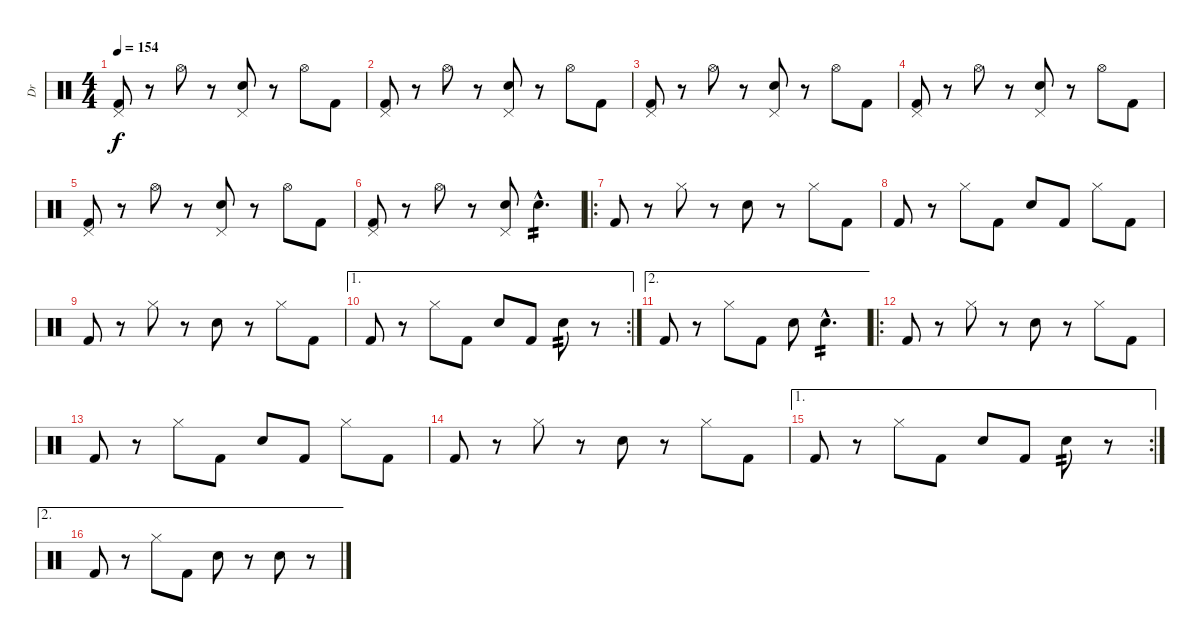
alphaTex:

\track ("Dr" "Dr") {instrument percussion}
\staff {score}
\articulation defaults
\ts (4 4)
\tempo 154
\clef neutral
\ks c
("Pedal Hi-Hat (hit)" "Kick (hit) 2").8{dy f} r.8 "Hi-Hat (open)".8 r.8 ("Pedal Hi-Hat (hit)" "Electric Snare (hit)").8 r.8 "Hi-Hat (open)".8 "Kick (hit) 2".8 |
("Pedal Hi-Hat (hit)" "Kick (hit) 2").8 r.8 "Hi-Hat (open)".8 r.8 ("Pedal Hi-Hat (hit)" "Electric Snare (hit)").8 r.8 "Hi-Hat (open)".8 "Kick (hit) 2".8 |
("Pedal Hi-Hat (hit)" "Kick (hit) 2").8 r.8 "Hi-Hat (open)".8 r.8 ("Pedal Hi-Hat (hit)" "Electric Snare (hit)").8 r.8 "Hi-Hat (open)".8 "Kick (hit) 2".8 |
("Pedal Hi-Hat (hit)" "Kick (hit) 2").8 r.8 "Hi-Hat (open)".8 r.8 ("Pedal Hi-Hat (hit)" "Electric Snare (hit)").8 r.8 "Hi-Hat (open)".8 "Kick (hit) 2".8 |
("Pedal Hi-Hat (hit)" "Kick (hit) 2").8 r.8 "Hi-Hat (open)".8 r.8 ("Pedal Hi-Hat (hit)" "Electric Snare (hit)").8 r.8 "Hi-Hat (open)".8 "Kick (hit) 2".8 |
("Pedal Hi-Hat (hit)" "Kick (hit) 2").8 r.8 "Hi-Hat (open)".8 r.8 ("Pedal Hi-Hat (hit)" "Electric Snare (hit)").8 "Electric Snare (hit)"{hac}.4{d tp 2} |
\ro "Kick (hit) 2".8
r.8 "Hi-Hat (closed)".8 r.8 "Electric Snare (hit)".8 r.8 "Hi-Hat (closed)".8 "Kick (hit) 2".8 |
"Kick (hit) 2".8 r.8 "Hi-Hat (closed)".8 "Kick (hit) 2".8 "Electric Snare (hit)".8 "Kick (hit) 2".8 "Hi-Hat (closed)".8 "Kick (hit) 2".8 |
"Kick (hit) 2".8 r.8 "Hi-Hat (closed)".8 r.8 "Electric Snare (hit)".8 r.8 "Hi-Hat (closed)".8 "Kick (hit) 2".8 |
\ae 1
\rc 2 "Kick (hit) 2".8
r.8 "Hi-Hat (closed)".8 "Kick (hit) 2".8 "Electric Snare (hit)".8 "Kick (hit) 2".8 "Electric Snare (hit)".8{tp 2} r.8 |
\ae 2 "Kick (hit) 2".8
r.8 "Hi-Hat (closed)".8 "Kick (hit) 2".8 "Electric Snare (hit)".8 "Electric Snare (hit)"{hac}.4{d tp 2} |
\ro "Kick (hit) 2".8
r.8 "Hi-Hat (closed)".8 r.8 "Electric Snare (hit)".8 r.8 "Hi-Hat (closed)".8 "Kick (hit) 2".8 |
"Kick (hit) 2".8 r.8 "Hi-Hat (closed)".8 "Kick (hit) 2".8 "Electric Snare (hit)".8 "Kick (hit) 2".8 "Hi-Hat (closed)".8 "Kick (hit) 2".8 |
"Kick (hit) 2".8 r.8 "Hi-Hat (closed)".8 r.8 "Electric Snare (hit)".8 r.8 "Hi-Hat (closed)".8 "Kick (hit) 2".8 |
\ae 1
\rc 2 "Kick (hit) 2".8
r.8 "Hi-Hat (closed)".8 "Kick (hit) 2".8 "Electric Snare (hit)".8 "Kick (hit) 2".8 "Electric Snare (hit)".8{tp 2} r.8 |
\ae 2 "Kick (hit) 2".8
r.8 "Hi-Hat (closed)".8 "Kick (hit) 2".8 "Electric Snare (hit)".8 r.8 "Electric Snare (hit)".8 r.8
